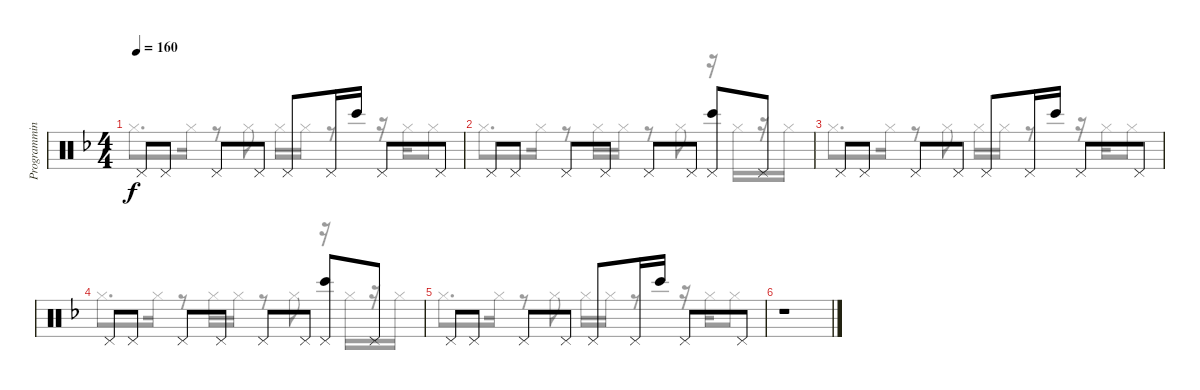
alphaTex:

\track ("Programming" "Programmin") {instrument percussion}
\staff {score}
\articulation defaults
\voice
\ts (4 4)
\tempo 160
\clef neutral
\ks f "Pedal Hi-Hat (hit)".8{dy f} "Pedal Hi-Hat (hit)".8 "Pedal Hi-Hat (hit)".8 "Pedal Hi-Hat (hit)".8 "Pedal Hi-Hat (hit)".8 "Pedal Hi-Hat (hit)".16 "Bongo High (hit)".16 "Pedal Hi-Hat (hit)".8 "Pedal Hi-Hat (hit)".8
|
"Pedal Hi-Hat (hit)".8 "Pedal Hi-Hat (hit)".8 "Pedal Hi-Hat (hit)".8 "Pedal Hi-Hat (hit)".8 "Pedal Hi-Hat (hit)".8 "Pedal Hi-Hat (hit)".8 ("Pedal Hi-Hat (hit)" "Bongo High (hit)").8 "Pedal Hi-Hat (hit)".8 |
"Pedal Hi-Hat (hit)".8 "Pedal Hi-Hat (hit)".8 "Pedal Hi-Hat (hit)".8 "Pedal Hi-Hat (hit)".8 "Pedal Hi-Hat (hit)".8 "Pedal Hi-Hat (hit)".16 "Bongo High (hit)".16 "Pedal Hi-Hat (hit)".8 "Pedal Hi-Hat (hit)".8 |
"Pedal Hi-Hat (hit)".8 "Pedal Hi-Hat (hit)".8 "Pedal Hi-Hat (hit)".8 "Pedal Hi-Hat (hit)".8 "Pedal Hi-Hat (hit)".8 "Pedal Hi-Hat (hit)".8 ("Pedal Hi-Hat (hit)" "Bongo High (hit)").8 "Pedal Hi-Hat (hit)".8 |
"Pedal Hi-Hat (hit)".8 "Pedal Hi-Hat (hit)".8 "Pedal Hi-Hat (hit)".8 "Pedal Hi-Hat (hit)".8 "Pedal Hi-Hat (hit)".8 "Pedal Hi-Hat (hit)".16 "Bongo High (hit)".16 "Pedal Hi-Hat (hit)".8 "Pedal Hi-Hat (hit)".8 |
r.1
\voice
\clef neutral
\ottava regular
\simile none
\ks f "Hi-Hat (closed)".8{d dy f} "Hi-Hat (closed)".16
r.8 "Hi-Hat (closed)".8 "Hi-Hat (closed)".16 "Hi-Hat (closed)".16 r.8 r.16 "Hi-Hat (closed)".16 "Hi-Hat (closed)".8 |
"Hi-Hat (closed)".8{d} "Hi-Hat (closed)".16 r.8 "Hi-Hat (closed)".16 "Hi-Hat (closed)".16 r.8 "Hi-Hat (closed)".8 r.16 "Hi-Hat (closed)".16 r.16 "Hi-Hat (closed)".16 |
"Hi-Hat (closed)".8{d} "Hi-Hat (closed)".16 r.8 "Hi-Hat (closed)".8 "Hi-Hat (closed)".16 "Hi-Hat (closed)".16 r.8 r.16 "Hi-Hat (closed)".16 "Hi-Hat (closed)".8 |
"Hi-Hat (closed)".8{d} "Hi-Hat (closed)".16 r.8 "Hi-Hat (closed)".16 "Hi-Hat (closed)".16 r.8 "Hi-Hat (closed)".8 r.16 "Hi-Hat (closed)".16 r.16 "Hi-Hat (closed)".16 |
"Hi-Hat (closed)".8{d} "Hi-Hat (closed)".16 r.8 "Hi-Hat (closed)".8 "Hi-Hat (closed)".16 "Hi-Hat (closed)".16 r.8 r.16 "Hi-Hat (closed)".16 "Hi-Hat (closed)".8 |
r.1
